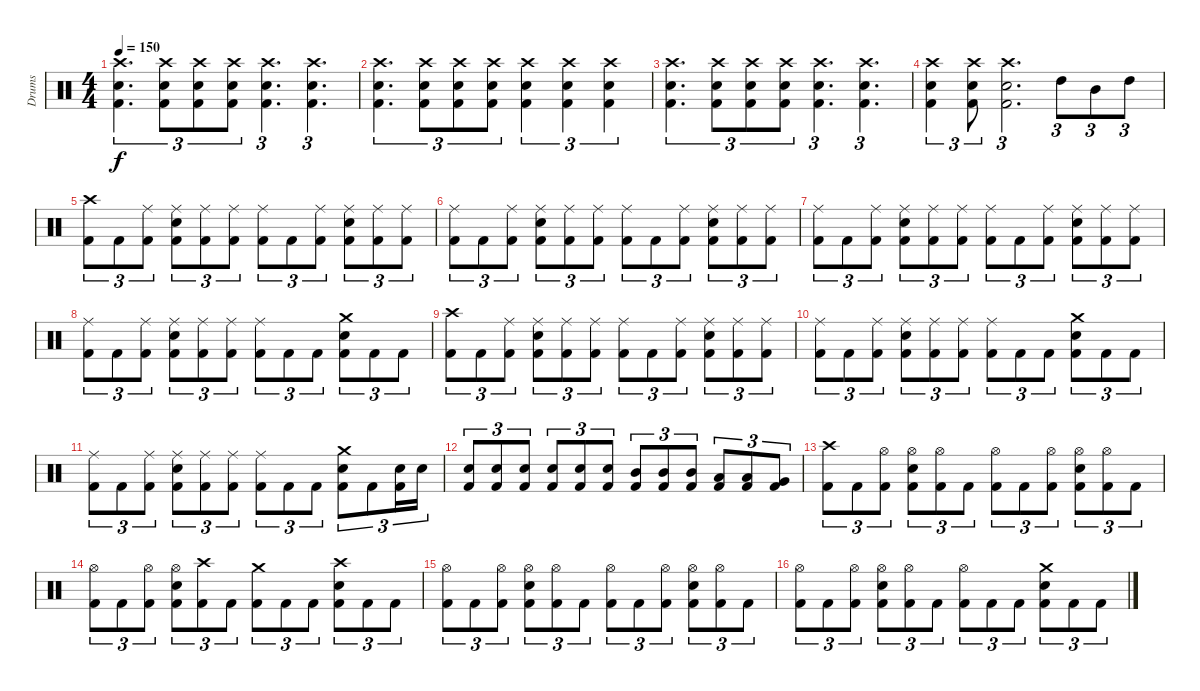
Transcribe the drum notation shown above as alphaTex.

\track ("Drums" "Drums") {instrument percussion}
\staff {score}
\articulation defaults
\ts (4 4)
\tempo 150
\clef neutral
\ks c
("Crash high (hit)" "Electric Snare (hit)" "Kick (hit) 2").4{d tu (3 2) dy f} ("Crash high (hit)" "Electric Snare (hit)" "Kick (hit) 2").8{tu (3 2)} ("Crash high (hit)" "Electric Snare (hit)" "Kick (hit) 2").8{tu (3 2)} ("Crash high (hit)" "Electric Snare (hit)" "Kick (hit) 2").8{tu (3 2)} ("Crash high (hit)" "Electric Snare (hit)" "Kick (hit) 2").4{d tu (3 2)} ("Crash high (hit)" "Electric Snare (hit)" "Kick (hit) 2").4{d tu (3 2)} |
("Crash high (hit)" "Electric Snare (hit)" "Kick (hit) 2").4{d tu (3 2)} ("Crash high (hit)" "Electric Snare (hit)" "Kick (hit) 2").8{tu (3 2)} ("Crash high (hit)" "Electric Snare (hit)" "Kick (hit) 2").8{tu (3 2)} ("Crash high (hit)" "Electric Snare (hit)" "Kick (hit) 2").8{tu (3 2)} ("Crash high (hit)" "Electric Snare (hit)" "Kick (hit) 2").4{tu (3 2)} ("Crash high (hit)" "Electric Snare (hit)" "Kick (hit) 2").4{tu (3 2)} ("Crash high (hit)" "Electric Snare (hit)" "Kick (hit) 2").4{tu (3 2)} |
("Crash high (hit)" "Electric Snare (hit)" "Kick (hit) 2").4{d tu (3 2)} ("Crash high (hit)" "Electric Snare (hit)" "Kick (hit) 2").8{tu (3 2)} ("Crash high (hit)" "Electric Snare (hit)" "Kick (hit) 2").8{tu (3 2)} ("Crash high (hit)" "Electric Snare (hit)" "Kick (hit) 2").8{tu (3 2)} ("Crash high (hit)" "Electric Snare (hit)" "Kick (hit) 2").4{d tu (3 2)} ("Crash high (hit)" "Electric Snare (hit)" "Kick (hit) 2").4{d tu (3 2)} |
("Crash high (hit)" "Electric Snare (hit)" "Kick (hit) 2").4{tu (3 2)} ("Crash high (hit)" "Electric Snare (hit)" "Kick (hit) 2").8{tu (3 2)} ("Crash high (hit)" "Electric Snare (hit)" "Kick (hit) 2").2{d tu (3 2)} "High Tom (hit)".8{tu (3 2)} "Mid Tom (hit)".8{tu (3 2)} "High Tom (hit)".8{tu (3 2)} |
("Crash high (hit)" "Kick (hit) 2").8{tu (3 2)} "Kick (hit) 2".8{tu (3 2)} ("Ride (middle)" "Kick (hit) 2").8{tu (3 2)} ("Ride (middle)" "Electric Snare (hit)" "Kick (hit) 2").8{tu (3 2)} ("Ride (middle)" "Kick (hit) 2").8{tu (3 2)} ("Ride (middle)" "Kick (hit) 2").8{tu (3 2)} ("Ride (middle)" "Kick (hit) 2").8{tu (3 2)} "Kick (hit) 2".8{tu (3 2)} ("Ride (middle)" "Kick (hit) 2").8{tu (3 2)} ("Ride (middle)" "Electric Snare (hit)" "Kick (hit) 2").8{tu (3 2)} ("Ride (middle)" "Kick (hit) 2").8{tu (3 2)} ("Ride (middle)" "Kick (hit) 2").8{tu (3 2)} |
("Ride (middle)" "Kick (hit) 2").8{tu (3 2)} "Kick (hit) 2".8{tu (3 2)} ("Ride (middle)" "Kick (hit) 2").8{tu (3 2)} ("Ride (middle)" "Electric Snare (hit)" "Kick (hit) 2").8{tu (3 2)} ("Ride (middle)" "Kick (hit) 2").8{tu (3 2)} ("Ride (middle)" "Kick (hit) 2").8{tu (3 2)} ("Ride (middle)" "Kick (hit) 2").8{tu (3 2)} "Kick (hit) 2".8{tu (3 2)} ("Ride (middle)" "Kick (hit) 2").8{tu (3 2)} ("Ride (middle)" "Electric Snare (hit)" "Kick (hit) 2").8{tu (3 2)} ("Ride (middle)" "Kick (hit) 2").8{tu (3 2)} ("Ride (middle)" "Kick (hit) 2").8{tu (3 2)} |
("Ride (middle)" "Kick (hit) 2").8{tu (3 2)} "Kick (hit) 2".8{tu (3 2)} ("Ride (middle)" "Kick (hit) 2").8{tu (3 2)} ("Ride (middle)" "Electric Snare (hit)" "Kick (hit) 2").8{tu (3 2)} ("Ride (middle)" "Kick (hit) 2").8{tu (3 2)} ("Ride (middle)" "Kick (hit) 2").8{tu (3 2)} ("Ride (middle)" "Kick (hit) 2").8{tu (3 2)} "Kick (hit) 2".8{tu (3 2)} ("Ride (middle)" "Kick (hit) 2").8{tu (3 2)} ("Ride (middle)" "Electric Snare (hit)" "Kick (hit) 2").8{tu (3 2)} ("Ride (middle)" "Kick (hit) 2").8{tu (3 2)} ("Ride (middle)" "Kick (hit) 2").8{tu (3 2)} |
("Ride (middle)" "Kick (hit) 2").8{tu (3 2)} "Kick (hit) 2".8{tu (3 2)} ("Ride (middle)" "Kick (hit) 2").8{tu (3 2)} ("Ride (middle)" "Electric Snare (hit)" "Kick (hit) 2").8{tu (3 2)} ("Ride (middle)" "Kick (hit) 2").8{tu (3 2)} ("Ride (middle)" "Kick (hit) 2").8{tu (3 2)} ("Ride (middle)" "Kick (hit) 2").8{tu (3 2)} "Kick (hit) 2".8{tu (3 2)} "Kick (hit) 2".8{tu (3 2)} ("Crash medium (hit)" "Electric Snare (hit)" "Kick (hit) 2").8{tu (3 2)} "Kick (hit) 2".8{tu (3 2)} "Kick (hit) 2".8{tu (3 2)} |
("Crash high (hit)" "Kick (hit) 2").8{tu (3 2)} "Kick (hit) 2".8{tu (3 2)} ("Ride (middle)" "Kick (hit) 2").8{tu (3 2)} ("Ride (middle)" "Electric Snare (hit)" "Kick (hit) 2").8{tu (3 2)} ("Ride (middle)" "Kick (hit) 2").8{tu (3 2)} ("Ride (middle)" "Kick (hit) 2").8{tu (3 2)} ("Ride (middle)" "Kick (hit) 2").8{tu (3 2)} "Kick (hit) 2".8{tu (3 2)} ("Ride (middle)" "Kick (hit) 2").8{tu (3 2)} ("Ride (middle)" "Electric Snare (hit)" "Kick (hit) 2").8{tu (3 2)} ("Ride (middle)" "Kick (hit) 2").8{tu (3 2)} ("Ride (middle)" "Kick (hit) 2").8{tu (3 2)} |
("Ride (middle)" "Kick (hit) 2").8{tu (3 2)} "Kick (hit) 2".8{tu (3 2)} ("Ride (middle)" "Kick (hit) 2").8{tu (3 2)} ("Ride (middle)" "Electric Snare (hit)" "Kick (hit) 2").8{tu (3 2)} ("Ride (middle)" "Kick (hit) 2").8{tu (3 2)} ("Ride (middle)" "Kick (hit) 2").8{tu (3 2)} ("Ride (middle)" "Kick (hit) 2").8{tu (3 2)} "Kick (hit) 2".8{tu (3 2)} "Kick (hit) 2".8{tu (3 2)} ("Crash medium (hit)" "Electric Snare (hit)" "Kick (hit) 2").8{tu (3 2)} "Kick (hit) 2".8{tu (3 2)} "Kick (hit) 2".8{tu (3 2)} |
("Ride (middle)" "Kick (hit) 2").8{tu (3 2)} "Kick (hit) 2".8{tu (3 2)} ("Ride (middle)" "Kick (hit) 2").8{tu (3 2)} ("Ride (middle)" "Electric Snare (hit)" "Kick (hit) 2").8{tu (3 2)} ("Ride (middle)" "Kick (hit) 2").8{tu (3 2)} ("Ride (middle)" "Kick (hit) 2").8{tu (3 2)} ("Ride (middle)" "Kick (hit) 2").8{tu (3 2)} "Kick (hit) 2".8{tu (3 2)} "Kick (hit) 2".8{tu (3 2)} ("Crash medium (hit)" "Electric Snare (hit)" "Kick (hit) 2").8{tu (3 2)} "Kick (hit) 2".8{tu (3 2)} ("Electric Snare (hit)" "Kick (hit) 2").16{tu (3 2)} "Electric Snare (hit)".16{tu (3 2)} |
("Electric Snare (hit)" "Kick (hit) 2").8{tu (3 2)} ("Electric Snare (hit)" "Kick (hit) 2").8{tu (3 2)} ("Electric Snare (hit)" "Kick (hit) 2").8{tu (3 2)} ("Electric Snare (hit)" "Kick (hit) 2").8{tu (3 2)} ("Electric Snare (hit)" "Kick (hit) 2").8{tu (3 2)} ("Electric Snare (hit)" "Kick (hit) 2").8{tu (3 2)} ("Mid Tom (hit)" "Kick (hit) 2").8{tu (3 2)} ("Mid Tom (hit)" "Kick (hit) 2").8{tu (3 2)} ("Mid Tom (hit)" "Kick (hit) 2").8{tu (3 2)} ("Low Tom (hit)" "Kick (hit) 2").8{tu (3 2)} ("Low Tom (hit)" "Kick (hit) 2").8{tu (3 2)} ("Very Low Tom (hit)" "Kick (hit) 2").8{tu (3 2)} |
("Crash high (hit)" "Kick (hit) 2").8{tu (3 2)} "Kick (hit) 2".8{tu (3 2)} ("Hi-Hat (open)" "Kick (hit) 2").8{tu (3 2)} ("Hi-Hat (open)" "Electric Snare (hit)" "Kick (hit) 2").8{tu (3 2)} ("Hi-Hat (open)" "Kick (hit) 2").8{tu (3 2)} "Kick (hit) 2".8{tu (3 2)} ("Hi-Hat (open)" "Kick (hit) 2").8{tu (3 2)} "Kick (hit) 2".8{tu (3 2)} ("Hi-Hat (open)" "Kick (hit) 2").8{tu (3 2)} ("Hi-Hat (open)" "Electric Snare (hit)" "Kick (hit) 2").8{tu (3 2)} ("Hi-Hat (open)" "Kick (hit) 2").8{tu (3 2)} "Kick (hit) 2".8{tu (3 2)} |
("Hi-Hat (open)" "Kick (hit) 2").8{tu (3 2)} "Kick (hit) 2".8{tu (3 2)} ("Hi-Hat (open)" "Kick (hit) 2").8{tu (3 2)} ("Hi-Hat (open)" "Electric Snare (hit)" "Kick (hit) 2").8{tu (3 2)} ("Crash high (hit)" "Kick (hit) 2").8{tu (3 2)} "Kick (hit) 2".8{tu (3 2)} ("Crash medium (hit)" "Kick (hit) 2").8{tu (3 2)} "Kick (hit) 2".8{tu (3 2)} "Kick (hit) 2".8{tu (3 2)} ("Crash high (hit)" "Electric Snare (hit)" "Kick (hit) 2").8{tu (3 2)} "Kick (hit) 2".8{tu (3 2)} "Kick (hit) 2".8{tu (3 2)} |
("Hi-Hat (open)" "Kick (hit) 2").8{tu (3 2)} "Kick (hit) 2".8{tu (3 2)} ("Hi-Hat (open)" "Kick (hit) 2").8{tu (3 2)} ("Hi-Hat (open)" "Electric Snare (hit)" "Kick (hit) 2").8{tu (3 2)} ("Hi-Hat (open)" "Kick (hit) 2").8{tu (3 2)} "Kick (hit) 2".8{tu (3 2)} ("Hi-Hat (open)" "Kick (hit) 2").8{tu (3 2)} "Kick (hit) 2".8{tu (3 2)} ("Hi-Hat (open)" "Kick (hit) 2").8{tu (3 2)} ("Hi-Hat (open)" "Electric Snare (hit)" "Kick (hit) 2").8{tu (3 2)} ("Hi-Hat (open)" "Kick (hit) 2").8{tu (3 2)} "Kick (hit) 2".8{tu (3 2)} |
("Hi-Hat (open)" "Kick (hit) 2").8{tu (3 2)} "Kick (hit) 2".8{tu (3 2)} ("Hi-Hat (open)" "Kick (hit) 2").8{tu (3 2)} ("Hi-Hat (open)" "Electric Snare (hit)" "Kick (hit) 2").8{tu (3 2)} ("Hi-Hat (open)" "Kick (hit) 2").8{tu (3 2)} "Kick (hit) 2".8{tu (3 2)} ("Hi-Hat (open)" "Kick (hit) 2").8{tu (3 2)} "Kick (hit) 2".8{tu (3 2)} "Kick (hit) 2".8{tu (3 2)} ("Crash medium (hit)" "Electric Snare (hit)" "Kick (hit) 2").8{tu (3 2)} "Kick (hit) 2".8{tu (3 2)} "Kick (hit) 2".8{tu (3 2)}
